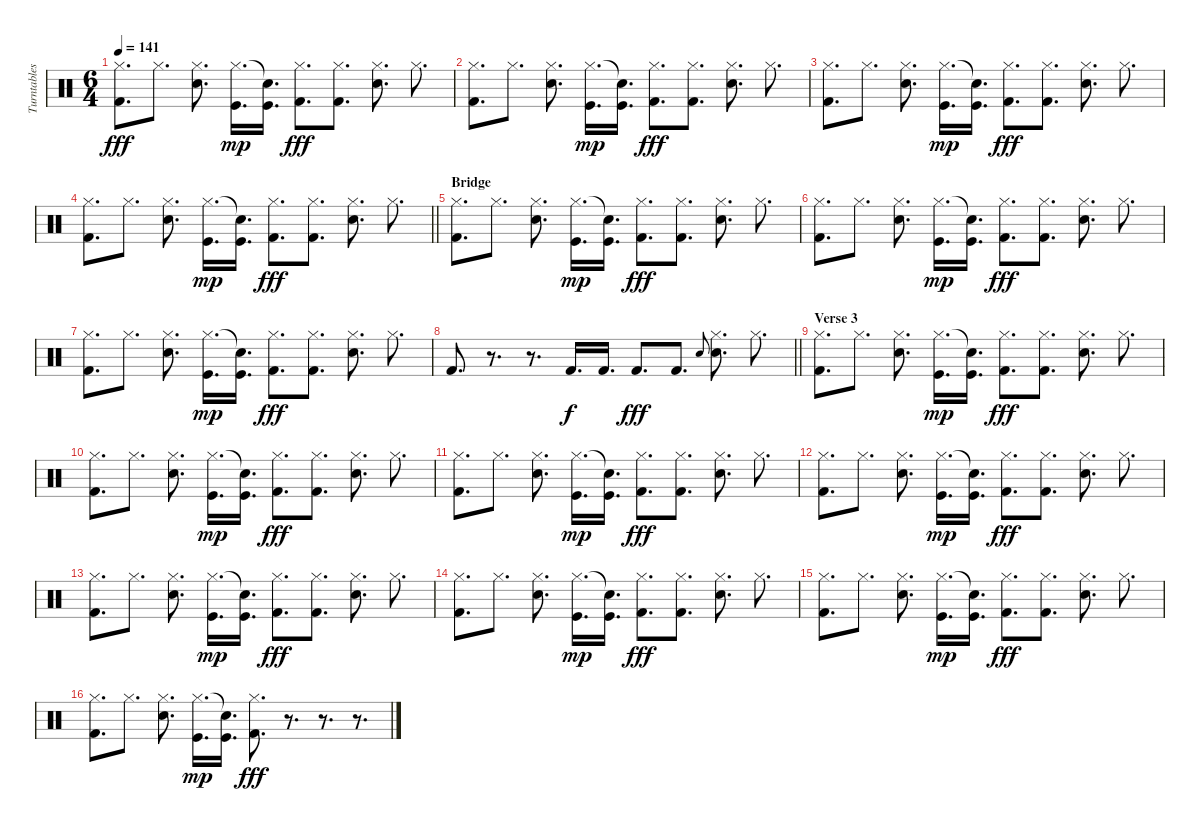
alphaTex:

\track ("Turntables" "Turntables") {instrument percussion}
\staff {score}
\articulation defaults
\ts (6 4)
\tempo 141
\clef neutral
\ks c
("Hi-Hat (closed)" "Kick (hit) 2").8{d dy fff} "Hi-Hat (closed)".8{d} ("Hi-Hat (closed)" "Electric Snare (hit)").8{d} ("Hi-Hat (closed)" "Kick (hit)").16{d dy mp} ("Snare (hit)"{t} "Kick (hit)").16{d} ("Hi-Hat (closed)" "Kick (hit) 2").8{d dy fff} ("Hi-Hat (closed)" "Kick (hit) 2").8{d} ("Hi-Hat (closed)" "Electric Snare (hit)").8{d} "Hi-Hat (closed)".8{d} |
("Hi-Hat (closed)" "Kick (hit) 2").8{d} "Hi-Hat (closed)".8{d} ("Hi-Hat (closed)" "Electric Snare (hit)").8{d} ("Hi-Hat (closed)" "Kick (hit)").16{d dy mp} ("Snare (hit)"{t} "Kick (hit)").16{d} ("Hi-Hat (closed)" "Kick (hit) 2").8{d dy fff} ("Hi-Hat (closed)" "Kick (hit) 2").8{d} ("Hi-Hat (closed)" "Electric Snare (hit)").8{d} "Hi-Hat (closed)".8{d} |
("Hi-Hat (closed)" "Kick (hit) 2").8{d} "Hi-Hat (closed)".8{d} ("Hi-Hat (closed)" "Electric Snare (hit)").8{d} ("Hi-Hat (closed)" "Kick (hit)").16{d dy mp} ("Snare (hit)"{t} "Kick (hit)").16{d} ("Hi-Hat (closed)" "Kick (hit) 2").8{d dy fff} ("Hi-Hat (closed)" "Kick (hit) 2").8{d} ("Hi-Hat (closed)" "Electric Snare (hit)").8{d} "Hi-Hat (closed)".8{d} |
\barLineRight lightlight
("Hi-Hat (closed)" "Kick (hit) 2").8{d} "Hi-Hat (closed)".8{d} ("Hi-Hat (closed)" "Electric Snare (hit)").8{d} ("Hi-Hat (closed)" "Kick (hit)").16{d dy mp} ("Snare (hit)"{t} "Kick (hit)").16{d} ("Hi-Hat (closed)" "Kick (hit) 2").8{d dy fff} ("Hi-Hat (closed)" "Kick (hit) 2").8{d} ("Hi-Hat (closed)" "Electric Snare (hit)").8{d} "Hi-Hat (closed)".8{d} |
\section ("" "Bridge")
("Hi-Hat (closed)" "Kick (hit) 2").8{d} "Hi-Hat (closed)".8{d} ("Hi-Hat (closed)" "Electric Snare (hit)").8{d} ("Hi-Hat (closed)" "Kick (hit)").16{d dy mp} ("Snare (hit)"{t} "Kick (hit)").16{d} ("Hi-Hat (closed)" "Kick (hit) 2").8{d dy fff} ("Hi-Hat (closed)" "Kick (hit) 2").8{d} ("Hi-Hat (closed)" "Electric Snare (hit)").8{d} "Hi-Hat (closed)".8{d} |
("Hi-Hat (closed)" "Kick (hit) 2").8{d} "Hi-Hat (closed)".8{d} ("Hi-Hat (closed)" "Electric Snare (hit)").8{d} ("Hi-Hat (closed)" "Kick (hit)").16{d dy mp} ("Snare (hit)"{t} "Kick (hit)").16{d} ("Hi-Hat (closed)" "Kick (hit) 2").8{d dy fff} ("Hi-Hat (closed)" "Kick (hit) 2").8{d} ("Hi-Hat (closed)" "Electric Snare (hit)").8{d} "Hi-Hat (closed)".8{d} |
("Hi-Hat (closed)" "Kick (hit) 2").8{d} "Hi-Hat (closed)".8{d} ("Hi-Hat (closed)" "Electric Snare (hit)").8{d} ("Hi-Hat (closed)" "Kick (hit)").16{d dy mp} ("Snare (hit)"{t} "Kick (hit)").16{d} ("Hi-Hat (closed)" "Kick (hit) 2").8{d dy fff} ("Hi-Hat (closed)" "Kick (hit) 2").8{d} ("Hi-Hat (closed)" "Electric Snare (hit)").8{d} "Hi-Hat (closed)".8{d} |
\barLineRight lightlight "Kick (hit) 2".8{d}
r.8{d} r.8{d} "Kick (hit) 2".16{d dy f} "Kick (hit) 2".16{d} "Kick (hit) 2".8{d dy fff} "Kick (hit) 2".8{d} "Electric Snare (hit)"{h}.8{gr onbeat} ("Hi-Hat (closed)" "Electric Snare (hit)").8{d} "Hi-Hat (closed)".8{d} |
\section ("" "Verse 3")
("Hi-Hat (closed)" "Kick (hit) 2").8{d} "Hi-Hat (closed)".8{d} ("Hi-Hat (closed)" "Electric Snare (hit)").8{d} ("Hi-Hat (closed)" "Kick (hit)").16{d dy mp} ("Snare (hit)"{t} "Kick (hit)").16{d} ("Hi-Hat (closed)" "Kick (hit) 2").8{d dy fff} ("Hi-Hat (closed)" "Kick (hit) 2").8{d} ("Hi-Hat (closed)" "Electric Snare (hit)").8{d} "Hi-Hat (closed)".8{d} |
("Hi-Hat (closed)" "Kick (hit) 2").8{d} "Hi-Hat (closed)".8{d} ("Hi-Hat (closed)" "Electric Snare (hit)").8{d} ("Hi-Hat (closed)" "Kick (hit)").16{d dy mp} ("Snare (hit)"{t} "Kick (hit)").16{d} ("Hi-Hat (closed)" "Kick (hit) 2").8{d dy fff} ("Hi-Hat (closed)" "Kick (hit) 2").8{d} ("Hi-Hat (closed)" "Electric Snare (hit)").8{d} "Hi-Hat (closed)".8{d} |
("Hi-Hat (closed)" "Kick (hit) 2").8{d} "Hi-Hat (closed)".8{d} ("Hi-Hat (closed)" "Electric Snare (hit)").8{d} ("Hi-Hat (closed)" "Kick (hit)").16{d dy mp} ("Snare (hit)"{t} "Kick (hit)").16{d} ("Hi-Hat (closed)" "Kick (hit) 2").8{d dy fff} ("Hi-Hat (closed)" "Kick (hit) 2").8{d} ("Hi-Hat (closed)" "Electric Snare (hit)").8{d} "Hi-Hat (closed)".8{d} |
("Hi-Hat (closed)" "Kick (hit) 2").8{d} "Hi-Hat (closed)".8{d} ("Hi-Hat (closed)" "Electric Snare (hit)").8{d} ("Hi-Hat (closed)" "Kick (hit)").16{d dy mp} ("Snare (hit)"{t} "Kick (hit)").16{d} ("Hi-Hat (closed)" "Kick (hit) 2").8{d dy fff} ("Hi-Hat (closed)" "Kick (hit) 2").8{d} ("Hi-Hat (closed)" "Electric Snare (hit)").8{d} "Hi-Hat (closed)".8{d} |
("Hi-Hat (closed)" "Kick (hit) 2").8{d} "Hi-Hat (closed)".8{d} ("Hi-Hat (closed)" "Electric Snare (hit)").8{d} ("Hi-Hat (closed)" "Kick (hit)").16{d dy mp} ("Snare (hit)"{t} "Kick (hit)").16{d} ("Hi-Hat (closed)" "Kick (hit) 2").8{d dy fff} ("Hi-Hat (closed)" "Kick (hit) 2").8{d} ("Hi-Hat (closed)" "Electric Snare (hit)").8{d} "Hi-Hat (closed)".8{d} |
("Hi-Hat (closed)" "Kick (hit) 2").8{d} "Hi-Hat (closed)".8{d} ("Hi-Hat (closed)" "Electric Snare (hit)").8{d} ("Hi-Hat (closed)" "Kick (hit)").16{d dy mp} ("Snare (hit)"{t} "Kick (hit)").16{d} ("Hi-Hat (closed)" "Kick (hit) 2").8{d dy fff} ("Hi-Hat (closed)" "Kick (hit) 2").8{d} ("Hi-Hat (closed)" "Electric Snare (hit)").8{d} "Hi-Hat (closed)".8{d} |
("Hi-Hat (closed)" "Kick (hit) 2").8{d} "Hi-Hat (closed)".8{d} ("Hi-Hat (closed)" "Electric Snare (hit)").8{d} ("Hi-Hat (closed)" "Kick (hit)").16{d dy mp} ("Snare (hit)"{t} "Kick (hit)").16{d} ("Hi-Hat (closed)" "Kick (hit) 2").8{d dy fff} ("Hi-Hat (closed)" "Kick (hit) 2").8{d} ("Hi-Hat (closed)" "Electric Snare (hit)").8{d} "Hi-Hat (closed)".8{d} |
("Hi-Hat (closed)" "Kick (hit) 2").8{d} "Hi-Hat (closed)".8{d} ("Hi-Hat (closed)" "Electric Snare (hit)").8{d} ("Hi-Hat (closed)" "Kick (hit)").16{d dy mp} ("Snare (hit)"{t} "Kick (hit)").16{d} ("Hi-Hat (closed)" "Kick (hit) 2").8{d dy fff} r.8{d} r.8{d} r.8{d}
